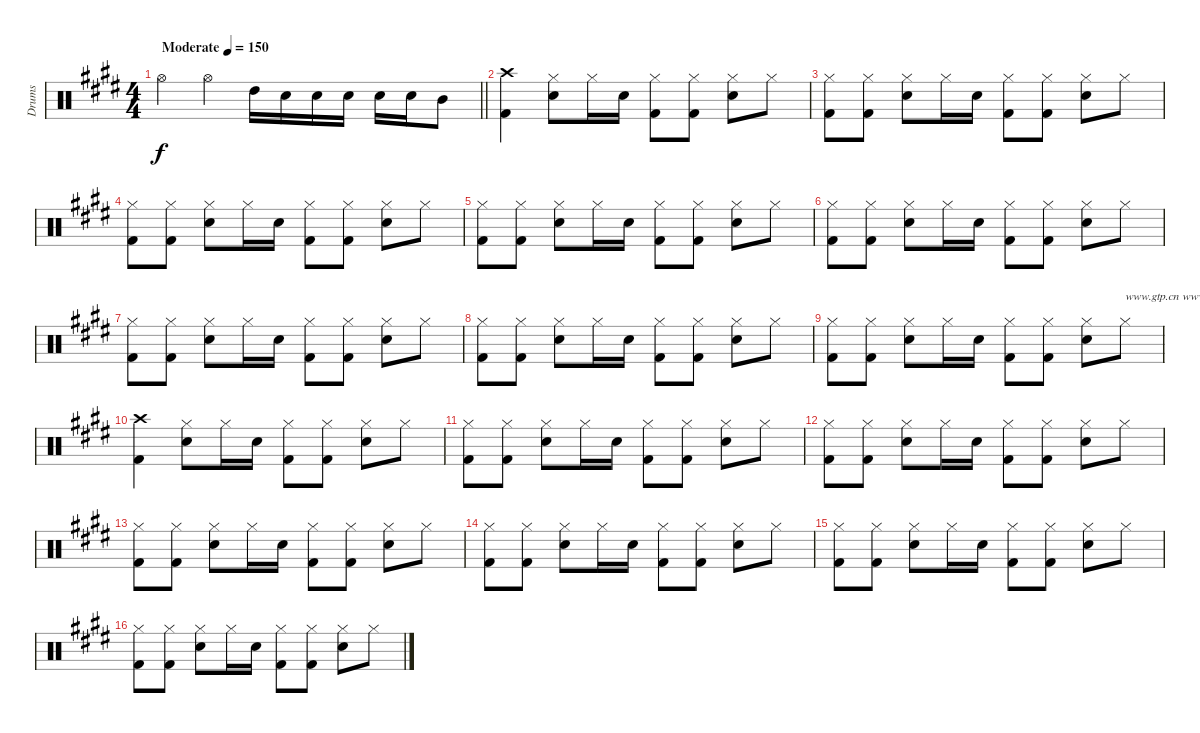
\track ("Drums" "Drums") {instrument percussion}
\staff {score}
\articulation defaults
\ts (4 4)
\tempo (150 "Moderate")
\clef neutral
\barLineRight lightlight
\ks e "Hi-Hat (open)".4{dy f} "Hi-Hat (open)".4 "High Tom (hit)".16 "Snare (hit) 2".16 "Snare (hit) 2".16 "Snare (hit) 2".16 "Snare (hit) 2".16 "Snare (hit) 2".16 "Mid Tom (hit)".8
|
\section ("" "")
("Crash high (hit)" "Kick (hit) 2").4 ("Hi-Hat (closed)" "Snare (hit) 2").8 "Hi-Hat (closed)".16 "Snare (hit) 2".16 ("Hi-Hat (closed)" "Kick (hit) 2").8 ("Hi-Hat (closed)" "Kick (hit) 2").8 ("Hi-Hat (closed)" "Snare (hit) 2").8 "Hi-Hat (closed)".8 |
("Hi-Hat (closed)" "Kick (hit) 2").8 ("Hi-Hat (closed)" "Kick (hit) 2").8 ("Hi-Hat (closed)" "Snare (hit) 2").8 "Hi-Hat (closed)".16 "Snare (hit) 2".16 ("Hi-Hat (closed)" "Kick (hit) 2").8 ("Hi-Hat (closed)" "Kick (hit) 2").8 ("Hi-Hat (closed)" "Snare (hit) 2").8 "Hi-Hat (closed)".8 |
("Hi-Hat (closed)" "Kick (hit) 2").8 ("Hi-Hat (closed)" "Kick (hit) 2").8 ("Hi-Hat (closed)" "Snare (hit) 2").8 "Hi-Hat (closed)".16 "Snare (hit) 2".16 ("Hi-Hat (closed)" "Kick (hit) 2").8 ("Hi-Hat (closed)" "Kick (hit) 2").8 ("Hi-Hat (closed)" "Snare (hit) 2").8 "Hi-Hat (closed)".8 |
("Hi-Hat (closed)" "Kick (hit) 2").8 ("Hi-Hat (closed)" "Kick (hit) 2").8 ("Hi-Hat (closed)" "Snare (hit) 2").8 "Hi-Hat (closed)".16 "Snare (hit) 2".16 ("Hi-Hat (closed)" "Kick (hit) 2").8 ("Hi-Hat (closed)" "Kick (hit) 2").8 ("Hi-Hat (closed)" "Snare (hit) 2").8 "Hi-Hat (closed)".8 |
("Hi-Hat (closed)" "Kick (hit) 2").8 ("Hi-Hat (closed)" "Kick (hit) 2").8 ("Hi-Hat (closed)" "Snare (hit) 2").8 "Hi-Hat (closed)".16 "Snare (hit) 2".16 ("Hi-Hat (closed)" "Kick (hit) 2").8 ("Hi-Hat (closed)" "Kick (hit) 2").8 ("Hi-Hat (closed)" "Snare (hit) 2").8 "Hi-Hat (closed)".8 |
("Hi-Hat (closed)" "Kick (hit) 2").8 ("Hi-Hat (closed)" "Kick (hit) 2").8 ("Hi-Hat (closed)" "Snare (hit) 2").8 "Hi-Hat (closed)".16 "Snare (hit) 2".16 ("Hi-Hat (closed)" "Kick (hit) 2").8 ("Hi-Hat (closed)" "Kick (hit) 2").8 ("Hi-Hat (closed)" "Snare (hit) 2").8 "Hi-Hat (closed)".8 |
("Hi-Hat (closed)" "Kick (hit) 2").8 ("Hi-Hat (closed)" "Kick (hit) 2").8 ("Hi-Hat (closed)" "Snare (hit) 2").8 "Hi-Hat (closed)".16 "Snare (hit) 2".16 ("Hi-Hat (closed)" "Kick (hit) 2").8 ("Hi-Hat (closed)" "Kick (hit) 2").8 ("Hi-Hat (closed)" "Snare (hit) 2").8 "Hi-Hat (closed)".8 |
("Hi-Hat (closed)" "Kick (hit) 2").8 ("Hi-Hat (closed)" "Kick (hit) 2").8 ("Hi-Hat (closed)" "Snare (hit) 2").8 "Hi-Hat (closed)".16 "Snare (hit) 2".16 ("Hi-Hat (closed)" "Kick (hit) 2").8 ("Hi-Hat (closed)" "Kick (hit) 2").8 ("Hi-Hat (closed)" "Snare (hit) 2").8 "Hi-Hat (closed)".8{txt "www.gtp.cn www.51gtp.com联合为您提供优秀的GTP!"} |
("Crash high (hit)" "Kick (hit) 2").4 ("Hi-Hat (closed)" "Snare (hit) 2").8 "Hi-Hat (closed)".16 "Snare (hit) 2".16 ("Hi-Hat (closed)" "Kick (hit) 2").8 ("Hi-Hat (closed)" "Kick (hit) 2").8 ("Hi-Hat (closed)" "Snare (hit) 2").8 "Hi-Hat (closed)".8 |
("Hi-Hat (closed)" "Kick (hit) 2").8 ("Hi-Hat (closed)" "Kick (hit) 2").8 ("Hi-Hat (closed)" "Snare (hit) 2").8 "Hi-Hat (closed)".16 "Snare (hit) 2".16 ("Hi-Hat (closed)" "Kick (hit) 2").8 ("Hi-Hat (closed)" "Kick (hit) 2").8 ("Hi-Hat (closed)" "Snare (hit) 2").8 "Hi-Hat (closed)".8 |
("Hi-Hat (closed)" "Kick (hit) 2").8 ("Hi-Hat (closed)" "Kick (hit) 2").8 ("Hi-Hat (closed)" "Snare (hit) 2").8 "Hi-Hat (closed)".16 "Snare (hit) 2".16 ("Hi-Hat (closed)" "Kick (hit) 2").8 ("Hi-Hat (closed)" "Kick (hit) 2").8 ("Hi-Hat (closed)" "Snare (hit) 2").8 "Hi-Hat (closed)".8 |
("Hi-Hat (closed)" "Kick (hit) 2").8 ("Hi-Hat (closed)" "Kick (hit) 2").8 ("Hi-Hat (closed)" "Snare (hit) 2").8 "Hi-Hat (closed)".16 "Snare (hit) 2".16 ("Hi-Hat (closed)" "Kick (hit) 2").8 ("Hi-Hat (closed)" "Kick (hit) 2").8 ("Hi-Hat (closed)" "Snare (hit) 2").8 "Hi-Hat (closed)".8 |
("Hi-Hat (closed)" "Kick (hit) 2").8 ("Hi-Hat (closed)" "Kick (hit) 2").8 ("Hi-Hat (closed)" "Snare (hit) 2").8 "Hi-Hat (closed)".16 "Snare (hit) 2".16 ("Hi-Hat (closed)" "Kick (hit) 2").8 ("Hi-Hat (closed)" "Kick (hit) 2").8 ("Hi-Hat (closed)" "Snare (hit) 2").8 "Hi-Hat (closed)".8 |
("Hi-Hat (closed)" "Kick (hit) 2").8 ("Hi-Hat (closed)" "Kick (hit) 2").8 ("Hi-Hat (closed)" "Snare (hit) 2").8 "Hi-Hat (closed)".16 "Snare (hit) 2".16 ("Hi-Hat (closed)" "Kick (hit) 2").8 ("Hi-Hat (closed)" "Kick (hit) 2").8 ("Hi-Hat (closed)" "Snare (hit) 2").8 "Hi-Hat (closed)".8 |
("Hi-Hat (closed)" "Kick (hit) 2").8 ("Hi-Hat (closed)" "Kick (hit) 2").8 ("Hi-Hat (closed)" "Snare (hit) 2").8 "Hi-Hat (closed)".16 "Snare (hit) 2".16 ("Hi-Hat (closed)" "Kick (hit) 2").8 ("Hi-Hat (closed)" "Kick (hit) 2").8 ("Hi-Hat (closed)" "Snare (hit) 2").8 "Hi-Hat (closed)".8
